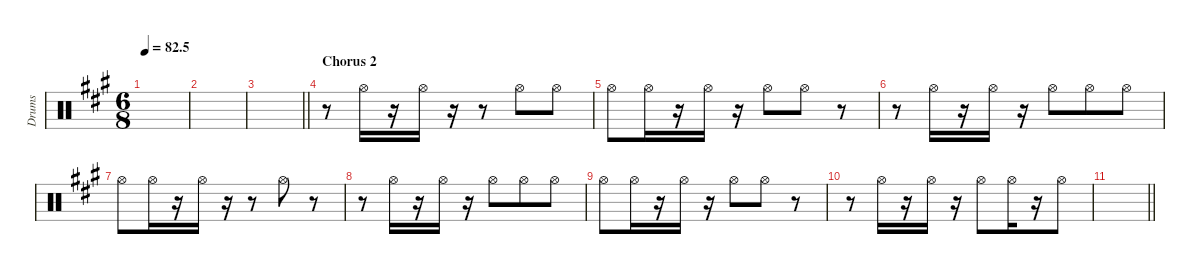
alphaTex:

\defaultSystemsLayout 4
\hideDynamics
\bracketExtendMode nobrackets
\otherSystemsTrackNameOrientation horizontal
\track ("Hihat" "Drums") {instrument percussion}
\staff {score}
\articulation defaults
\ts (6 8)
\tempo
82.5
\accidentals auto
\clef neutral
\ottava regular
\simile none
\scale
0.333333
\ks a
|
\scale
0.333333 |
\scale
0.333333
\barLineRight lightlight
|
\section ("" "Chorus 2")
\scale
0.333333 r.8 "Hi-Hat (open)"{acc forcenatural}.16 r.16 "Hi-Hat (open)"{acc forcenatural}.16 r.16 r.8 "Hi-Hat (open)"{acc forcenatural}.8 "Hi-Hat (open)"{acc forcenatural}.8 |
\scale
0.333333 "Hi-Hat (open)"{acc forcenatural}.8 "Hi-Hat (open)"{acc forcenatural}.16 r.16 "Hi-Hat (open)"{acc forcenatural}.16 r.16 "Hi-Hat (open)"{acc forcenatural}.8 "Hi-Hat (open)"{acc forcenatural}.8 r.8 |
\scale
0.333333 r.8 "Hi-Hat (open)"{acc forcenatural}.16 r.16 "Hi-Hat (open)"{acc forcenatural}.16 r.16 "Hi-Hat (open)"{acc forcenatural}.8 "Hi-Hat (open)"{acc forcenatural}.8 "Hi-Hat (open)"{acc forcenatural}.8 |
\scale
0.333333 "Hi-Hat (open)"{acc forcenatural}.8 "Hi-Hat (open)"{acc forcenatural}.16 r.16 "Hi-Hat (open)"{acc forcenatural}.16 r.16 r.8 "Hi-Hat (open)"{acc forcenatural}.8 r.8 |
\scale
0.333333 r.8 "Hi-Hat (open)"{acc forcenatural}.16 r.16 "Hi-Hat (open)"{acc forcenatural}.16 r.16 "Hi-Hat (open)"{acc forcenatural}.8 "Hi-Hat (open)"{acc forcenatural}.8 "Hi-Hat (open)"{acc forcenatural}.8 |
\scale
0.333333 "Hi-Hat (open)"{acc forcenatural}.8 "Hi-Hat (open)"{acc forcenatural}.16 r.16 "Hi-Hat (open)"{acc forcenatural}.16 r.16 "Hi-Hat (open)"{acc forcenatural}.8 "Hi-Hat (open)"{acc forcenatural}.8 r.8 |
\scale
0.333333 r.8 "Hi-Hat (open)"{acc forcenatural}.16 r.16 "Hi-Hat (open)"{acc forcenatural}.16 r.16 "Hi-Hat (open)"{acc forcenatural}.8 "Hi-Hat (open)"{acc forcenatural}.16 r.16 "Hi-Hat (open)"{acc forcenatural}.8 |
\scale
0.333333
\barLineRight lightlight
|
\scale
0.333333 |
\scale
0.333333 |
\scale
0.333333 |
\scale
0.333333 |
\scale
0.333333
